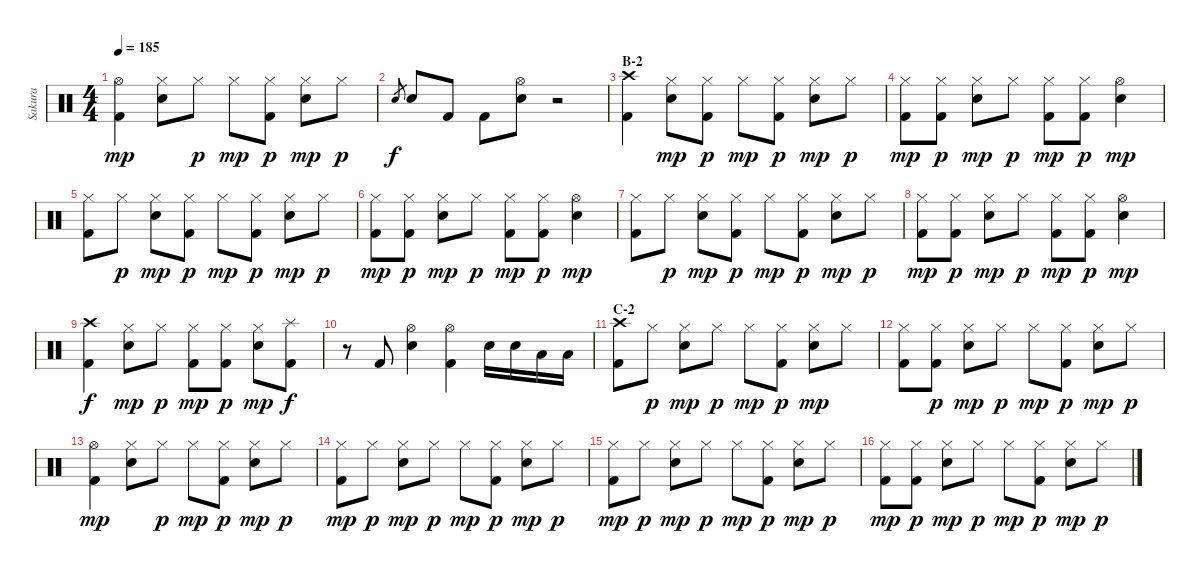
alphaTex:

\track ("Sakura" "Sakura") {instrument percussion}
\staff {score}
\articulation defaults
\ts (4 4)
\tempo 185
\clef neutral
\ks c
("Hi-Hat (open)" "Kick (hit) 2").4{dy mp} ("Hi-Hat (closed)" "Electric Snare (hit)").8 "Hi-Hat (closed)".8{dy p} "Hi-Hat (closed)".8{dy mp} ("Hi-Hat (closed)" "Kick (hit) 2").8{dy p} ("Hi-Hat (closed)" "Electric Snare (hit)").8{dy mp} "Hi-Hat (closed)".8{dy p} |
"Electric Snare (hit)".8{gr dy f} "Electric Snare (hit)".8 "Kick (hit) 2".8 "Kick (hit) 2".8 ("Hi-Hat (open)" "Electric Snare (hit)").8 r.2 |
\section ("" "B-2")
("Crash high (hit)" "Kick (hit) 2").4 ("Hi-Hat (closed)" "Electric Snare (hit)").8{dy mp} ("Hi-Hat (closed)" "Kick (hit) 2").8{dy p} "Hi-Hat (closed)".8{dy mp} ("Hi-Hat (closed)" "Kick (hit) 2").8{dy p} ("Hi-Hat (closed)" "Electric Snare (hit)").8{dy mp} "Hi-Hat (closed)".8{dy p} |
("Hi-Hat (closed)" "Kick (hit) 2").8{dy mp} ("Hi-Hat (closed)" "Kick (hit) 2").8{dy p} ("Hi-Hat (closed)" "Electric Snare (hit)").8{dy mp} "Hi-Hat (closed)".8{dy p} ("Hi-Hat (closed)" "Kick (hit) 2").8{dy mp} ("Hi-Hat (closed)" "Kick (hit) 2").8{dy p} ("Hi-Hat (open)" "Electric Snare (hit)").4{dy mp} |
("Hi-Hat (closed)" "Kick (hit) 2").8 "Hi-Hat (closed)".8{dy p} ("Hi-Hat (closed)" "Electric Snare (hit)").8{dy mp} ("Hi-Hat (closed)" "Kick (hit) 2").8{dy p} "Hi-Hat (closed)".8{dy mp} ("Hi-Hat (closed)" "Kick (hit) 2").8{dy p} ("Hi-Hat (closed)" "Electric Snare (hit)").8{dy mp} "Hi-Hat (closed)".8{dy p} |
("Hi-Hat (closed)" "Kick (hit) 2").8{dy mp} ("Hi-Hat (closed)" "Kick (hit) 2").8{dy p} ("Hi-Hat (closed)" "Electric Snare (hit)").8{dy mp} "Hi-Hat (closed)".8{dy p} ("Hi-Hat (closed)" "Kick (hit) 2").8{dy mp} ("Hi-Hat (closed)" "Kick (hit) 2").8{dy p} ("Hi-Hat (open)" "Electric Snare (hit)").4{dy mp} |
("Hi-Hat (closed)" "Kick (hit) 2").8 "Hi-Hat (closed)".8{dy p} ("Hi-Hat (closed)" "Electric Snare (hit)").8{dy mp} ("Hi-Hat (closed)" "Kick (hit) 2").8{dy p} "Hi-Hat (closed)".8{dy mp} ("Hi-Hat (closed)" "Kick (hit) 2").8{dy p} ("Hi-Hat (closed)" "Electric Snare (hit)").8{dy mp} "Hi-Hat (closed)".8{dy p} |
("Hi-Hat (closed)" "Kick (hit) 2").8{dy mp} ("Hi-Hat (closed)" "Kick (hit) 2").8{dy p} ("Hi-Hat (closed)" "Electric Snare (hit)").8{dy mp} "Hi-Hat (closed)".8{dy p} ("Hi-Hat (closed)" "Kick (hit) 2").8{dy mp} ("Hi-Hat (closed)" "Kick (hit) 2").8{dy p} ("Hi-Hat (open)" "Electric Snare (hit)").4{dy mp} |
("Crash high (hit)" "Kick (hit) 2").4{dy f} ("Hi-Hat (closed)" "Electric Snare (hit)").8{dy mp} "Hi-Hat (closed)".8{dy p} ("Hi-Hat (closed)" "Kick (hit) 2").8{dy mp} ("Hi-Hat (closed)" "Kick (hit) 2").8{dy p} ("Hi-Hat (closed)" "Electric Snare (hit)").8{dy mp} ("Splash (hit)" "Kick (hit) 2").8{dy f} |
r.8 "Kick (hit) 2".8 ("Hi-Hat (open)" "Electric Snare (hit)").4 ("Hi-Hat (open)" "Kick (hit) 2").4 "Electric Snare (hit)".16 "Electric Snare (hit)".16 "Low Tom (hit)".16 "Low Tom (hit)".16 |
\section ("" "C-2")
("Crash high (hit)" "Kick (hit) 2").8 "Hi-Hat (closed)".8{dy p} ("Hi-Hat (closed)" "Electric Snare (hit)").8{dy mp} "Hi-Hat (closed)".8{dy p} "Hi-Hat (closed)".8{dy mp} ("Hi-Hat (closed)" "Kick (hit) 2").8{dy p} ("Hi-Hat (closed)" "Electric Snare (hit)").8{dy mp} "Hi-Hat (closed)".8 |
("Hi-Hat (closed)" "Kick (hit) 2").8 ("Hi-Hat (closed)" "Kick (hit) 2").8{dy p} ("Hi-Hat (closed)" "Electric Snare (hit)").8{dy mp} "Hi-Hat (closed)".8{dy p} "Hi-Hat (closed)".8{dy mp} ("Hi-Hat (closed)" "Kick (hit) 2").8{dy p} ("Hi-Hat (closed)" "Electric Snare (hit)").8{dy mp} "Hi-Hat (closed)".8{dy p} |
("Hi-Hat (open)" "Kick (hit) 2").4{dy mp} ("Hi-Hat (closed)" "Electric Snare (hit)").8 "Hi-Hat (closed)".8{dy p} "Hi-Hat (closed)".8{dy mp} ("Hi-Hat (closed)" "Kick (hit) 2").8{dy p} ("Hi-Hat (closed)" "Electric Snare (hit)").8{dy mp} "Hi-Hat (closed)".8{dy p} |
("Hi-Hat (closed)" "Kick (hit) 2").8{dy mp} "Hi-Hat (closed)".8{dy p} ("Hi-Hat (closed)" "Electric Snare (hit)").8{dy mp} "Hi-Hat (closed)".8{dy p} "Hi-Hat (closed)".8{dy mp} ("Hi-Hat (closed)" "Kick (hit) 2").8{dy p} ("Hi-Hat (closed)" "Electric Snare (hit)").8{dy mp} "Hi-Hat (closed)".8{dy p} |
("Hi-Hat (closed)" "Kick (hit) 2").8{dy mp} "Hi-Hat (closed)".8{dy p} ("Hi-Hat (closed)" "Electric Snare (hit)").8{dy mp} "Hi-Hat (closed)".8{dy p} "Hi-Hat (closed)".8{dy mp} ("Hi-Hat (closed)" "Kick (hit) 2").8{dy p} ("Hi-Hat (closed)" "Electric Snare (hit)").8{dy mp} "Hi-Hat (closed)".8{dy p} |
("Hi-Hat (closed)" "Kick (hit) 2").8{dy mp} ("Hi-Hat (closed)" "Kick (hit) 2").8{dy p} ("Hi-Hat (closed)" "Electric Snare (hit)").8{dy mp} "Hi-Hat (closed)".8{dy p} "Hi-Hat (closed)".8{dy mp} ("Hi-Hat (closed)" "Kick (hit) 2").8{dy p} ("Hi-Hat (closed)" "Electric Snare (hit)").8{dy mp} "Hi-Hat (closed)".8{dy p}
